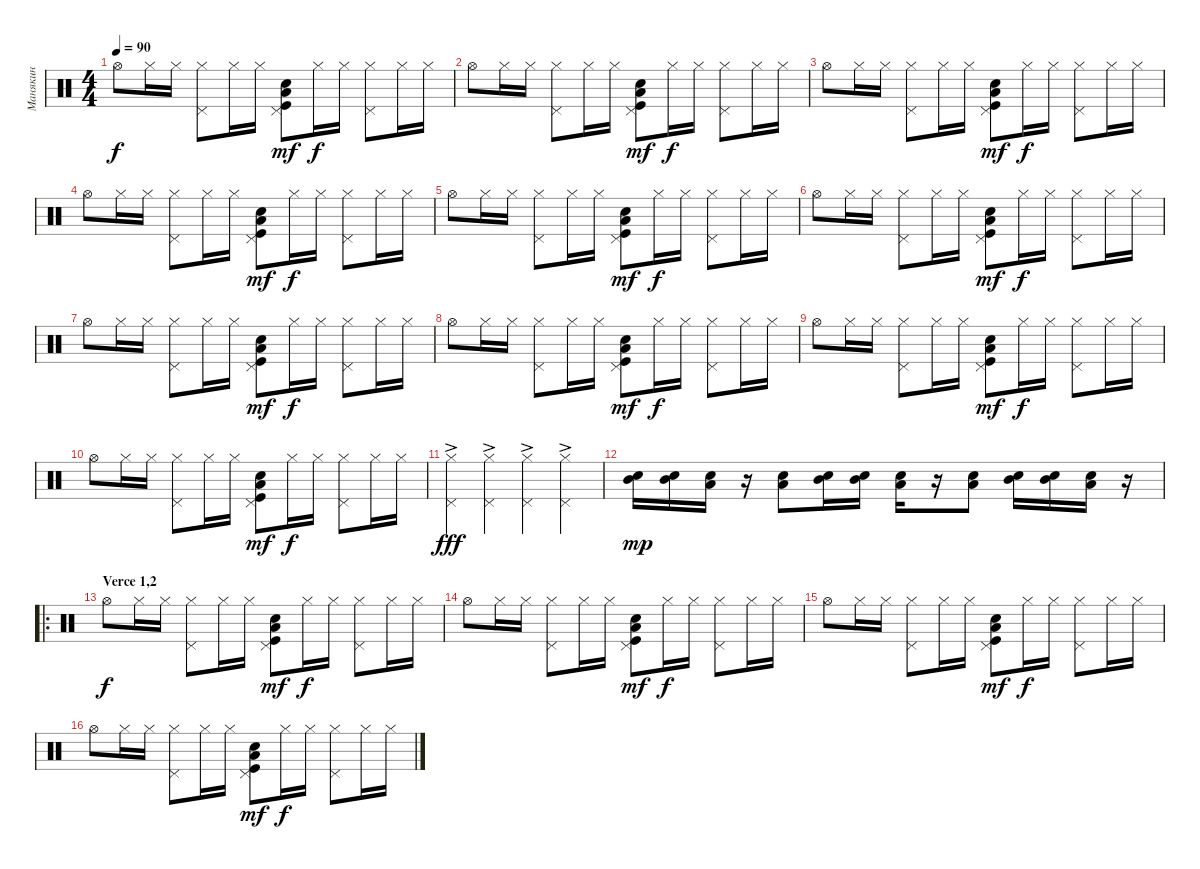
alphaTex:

\track ("Манякин" "Манякин") {instrument percussion}
\staff {score}
\articulation defaults
\ts (4 4)
\tempo 90
\clef neutral
\ks c "Hi-Hat (open)".8{dy f} "Hi-Hat (closed)".16 "Hi-Hat (closed)".16
("Hi-Hat (closed)" "Pedal Hi-Hat (hit)").8 "Hi-Hat (closed)".16 "Hi-Hat (closed)".16 ("Low Tom (hit)" "Electric Snare (hit)" "Kick (hit)" "Pedal Hi-Hat (hit)").8{dy mf} "Hi-Hat (closed)".16{dy f} "Hi-Hat (closed)".16 ("Pedal Hi-Hat (hit)" "Hi-Hat (closed)").8 "Hi-Hat (closed)".16 "Hi-Hat (closed)".16 |
"Hi-Hat (open)".8 "Hi-Hat (closed)".16 "Hi-Hat (closed)".16 ("Hi-Hat (closed)" "Pedal Hi-Hat (hit)").8 "Hi-Hat (closed)".16 "Hi-Hat (closed)".16 ("Low Tom (hit)" "Electric Snare (hit)" "Kick (hit)" "Pedal Hi-Hat (hit)").8{dy mf} "Hi-Hat (closed)".16{dy f} "Hi-Hat (closed)".16 ("Pedal Hi-Hat (hit)" "Hi-Hat (closed)").8 "Hi-Hat (closed)".16 "Hi-Hat (closed)".16 |
"Hi-Hat (open)".8 "Hi-Hat (closed)".16 "Hi-Hat (closed)".16 ("Hi-Hat (closed)" "Pedal Hi-Hat (hit)").8 "Hi-Hat (closed)".16 "Hi-Hat (closed)".16 ("Low Tom (hit)" "Electric Snare (hit)" "Kick (hit)" "Pedal Hi-Hat (hit)").8{dy mf} "Hi-Hat (closed)".16{dy f} "Hi-Hat (closed)".16 ("Pedal Hi-Hat (hit)" "Hi-Hat (closed)").8 "Hi-Hat (closed)".16 "Hi-Hat (closed)".16 |
"Hi-Hat (open)".8 "Hi-Hat (closed)".16 "Hi-Hat (closed)".16 ("Hi-Hat (closed)" "Pedal Hi-Hat (hit)").8 "Hi-Hat (closed)".16 "Hi-Hat (closed)".16 ("Low Tom (hit)" "Electric Snare (hit)" "Kick (hit)" "Pedal Hi-Hat (hit)").8{dy mf} "Hi-Hat (closed)".16{dy f} "Hi-Hat (closed)".16 ("Pedal Hi-Hat (hit)" "Hi-Hat (closed)").8 "Hi-Hat (closed)".16 "Hi-Hat (closed)".16 |
"Hi-Hat (open)".8 "Hi-Hat (closed)".16 "Hi-Hat (closed)".16 ("Hi-Hat (closed)" "Pedal Hi-Hat (hit)").8 "Hi-Hat (closed)".16 "Hi-Hat (closed)".16 ("Low Tom (hit)" "Electric Snare (hit)" "Kick (hit)" "Pedal Hi-Hat (hit)").8{dy mf} "Hi-Hat (closed)".16{dy f} "Hi-Hat (closed)".16 ("Pedal Hi-Hat (hit)" "Hi-Hat (closed)").8 "Hi-Hat (closed)".16 "Hi-Hat (closed)".16 |
"Hi-Hat (open)".8 "Hi-Hat (closed)".16 "Hi-Hat (closed)".16 ("Hi-Hat (closed)" "Pedal Hi-Hat (hit)").8 "Hi-Hat (closed)".16 "Hi-Hat (closed)".16 ("Low Tom (hit)" "Electric Snare (hit)" "Kick (hit)" "Pedal Hi-Hat (hit)").8{dy mf} "Hi-Hat (closed)".16{dy f} "Hi-Hat (closed)".16 ("Pedal Hi-Hat (hit)" "Hi-Hat (closed)").8 "Hi-Hat (closed)".16 "Hi-Hat (closed)".16 |
"Hi-Hat (open)".8 "Hi-Hat (closed)".16 "Hi-Hat (closed)".16 ("Hi-Hat (closed)" "Pedal Hi-Hat (hit)").8 "Hi-Hat (closed)".16 "Hi-Hat (closed)".16 ("Low Tom (hit)" "Electric Snare (hit)" "Kick (hit)" "Pedal Hi-Hat (hit)").8{dy mf} "Hi-Hat (closed)".16{dy f} "Hi-Hat (closed)".16 ("Pedal Hi-Hat (hit)" "Hi-Hat (closed)").8 "Hi-Hat (closed)".16 "Hi-Hat (closed)".16 |
"Hi-Hat (open)".8 "Hi-Hat (closed)".16 "Hi-Hat (closed)".16 ("Hi-Hat (closed)" "Pedal Hi-Hat (hit)").8 "Hi-Hat (closed)".16 "Hi-Hat (closed)".16 ("Low Tom (hit)" "Electric Snare (hit)" "Kick (hit)" "Pedal Hi-Hat (hit)").8{dy mf} "Hi-Hat (closed)".16{dy f} "Hi-Hat (closed)".16 ("Pedal Hi-Hat (hit)" "Hi-Hat (closed)").8 "Hi-Hat (closed)".16 "Hi-Hat (closed)".16 |
"Hi-Hat (open)".8 "Hi-Hat (closed)".16 "Hi-Hat (closed)".16 ("Hi-Hat (closed)" "Pedal Hi-Hat (hit)").8 "Hi-Hat (closed)".16 "Hi-Hat (closed)".16 ("Low Tom (hit)" "Electric Snare (hit)" "Kick (hit)" "Pedal Hi-Hat (hit)").8{dy mf} "Hi-Hat (closed)".16{dy f} "Hi-Hat (closed)".16 ("Pedal Hi-Hat (hit)" "Hi-Hat (closed)").8 "Hi-Hat (closed)".16 "Hi-Hat (closed)".16 |
"Hi-Hat (open)".8 "Hi-Hat (closed)".16 "Hi-Hat (closed)".16 ("Hi-Hat (closed)" "Pedal Hi-Hat (hit)").8 "Hi-Hat (closed)".16 "Hi-Hat (closed)".16 ("Low Tom (hit)" "Electric Snare (hit)" "Kick (hit)" "Pedal Hi-Hat (hit)").8{dy mf} "Hi-Hat (closed)".16{dy f} "Hi-Hat (closed)".16 ("Pedal Hi-Hat (hit)" "Hi-Hat (closed)").8 "Hi-Hat (closed)".16 "Hi-Hat (closed)".16 |
("Pedal Hi-Hat (hit)"{ac} "Hi-Hat (closed)"{ac}).4{dy fff} ("Pedal Hi-Hat (hit)"{ac} "Hi-Hat (closed)"{ac}).4 ("Pedal Hi-Hat (hit)"{ac} "Hi-Hat (closed)"{ac}).4 ("Pedal Hi-Hat (hit)"{ac} "Hi-Hat (closed)"{ac}).4 |
("Mid Tom (hit)" "Electric Snare (hit)").16{dy mp} ("Mid Tom (hit)" "Electric Snare (hit)").16 ("Low Tom (hit)" "Electric Snare (hit)").16 r.16 ("Low Tom (hit)" "Electric Snare (hit)").8 ("Mid Tom (hit)" "Electric Snare (hit)").16 ("Mid Tom (hit)" "Electric Snare (hit)").16 ("Low Tom (hit)" "Electric Snare (hit)").16 r.16 ("Low Tom (hit)" "Electric Snare (hit)").8 ("Mid Tom (hit)" "Electric Snare (hit)").16 ("Mid Tom (hit)" "Electric Snare (hit)").16 ("Low Tom (hit)" "Electric Snare (hit)").16 r.16 |
\ro
\section ("" "Verce 1,2")
"Hi-Hat (open)".8{dy f} "Hi-Hat (closed)".16 "Hi-Hat (closed)".16 ("Hi-Hat (closed)" "Pedal Hi-Hat (hit)").8 "Hi-Hat (closed)".16 "Hi-Hat (closed)".16 ("Low Tom (hit)" "Electric Snare (hit)" "Kick (hit)" "Pedal Hi-Hat (hit)").8{dy mf} "Hi-Hat (closed)".16{dy f} "Hi-Hat (closed)".16 ("Pedal Hi-Hat (hit)" "Hi-Hat (closed)").8 "Hi-Hat (closed)".16 "Hi-Hat (closed)".16 |
"Hi-Hat (open)".8 "Hi-Hat (closed)".16 "Hi-Hat (closed)".16 ("Hi-Hat (closed)" "Pedal Hi-Hat (hit)").8 "Hi-Hat (closed)".16 "Hi-Hat (closed)".16 ("Low Tom (hit)" "Electric Snare (hit)" "Kick (hit)" "Pedal Hi-Hat (hit)").8{dy mf} "Hi-Hat (closed)".16{dy f} "Hi-Hat (closed)".16 ("Pedal Hi-Hat (hit)" "Hi-Hat (closed)").8 "Hi-Hat (closed)".16 "Hi-Hat (closed)".16 |
"Hi-Hat (open)".8 "Hi-Hat (closed)".16 "Hi-Hat (closed)".16 ("Hi-Hat (closed)" "Pedal Hi-Hat (hit)").8 "Hi-Hat (closed)".16 "Hi-Hat (closed)".16 ("Low Tom (hit)" "Electric Snare (hit)" "Kick (hit)" "Pedal Hi-Hat (hit)").8{dy mf} "Hi-Hat (closed)".16{dy f} "Hi-Hat (closed)".16 ("Pedal Hi-Hat (hit)" "Hi-Hat (closed)").8 "Hi-Hat (closed)".16 "Hi-Hat (closed)".16 |
"Hi-Hat (open)".8 "Hi-Hat (closed)".16 "Hi-Hat (closed)".16 ("Hi-Hat (closed)" "Pedal Hi-Hat (hit)").8 "Hi-Hat (closed)".16 "Hi-Hat (closed)".16 ("Low Tom (hit)" "Electric Snare (hit)" "Kick (hit)" "Pedal Hi-Hat (hit)").8{dy mf} "Hi-Hat (closed)".16{dy f} "Hi-Hat (closed)".16 ("Pedal Hi-Hat (hit)" "Hi-Hat (closed)").8 "Hi-Hat (closed)".16 "Hi-Hat (closed)".16
